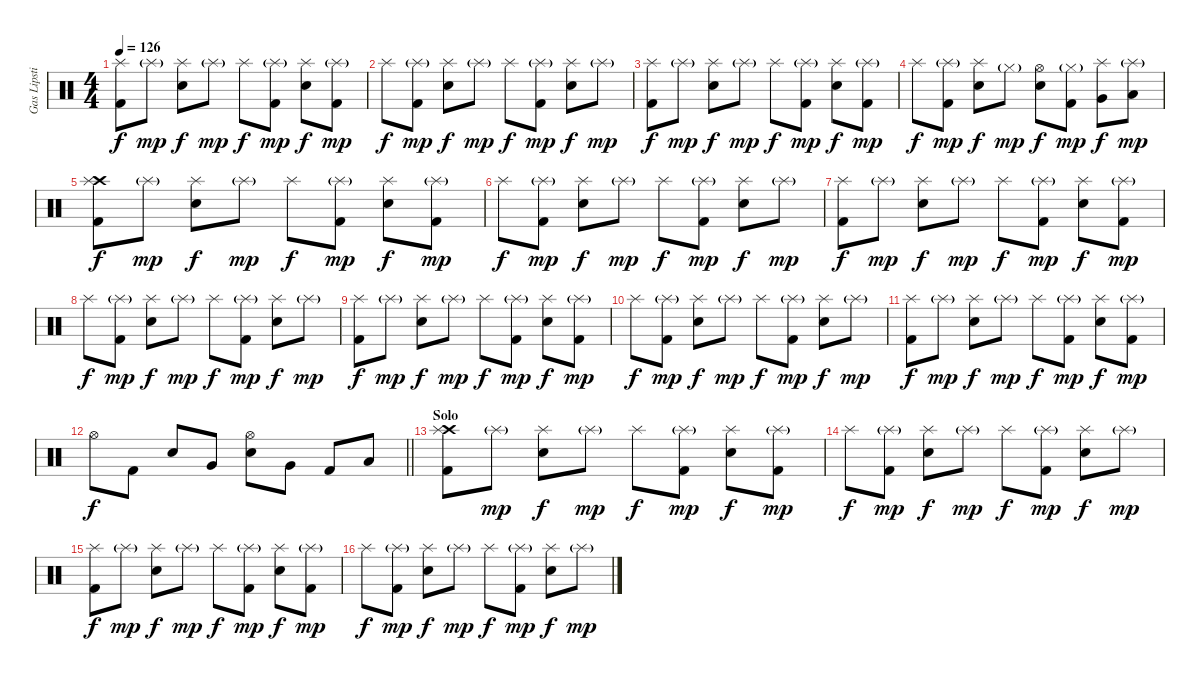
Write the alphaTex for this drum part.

\track ("Gas Lipstick (Drums)" "Gas Lipsti") {instrument percussion}
\staff {score}
\articulation defaults
\ts (4 4)
\tempo 126
\clef neutral
\ks c
("Splash (hit)" "Kick (hit) 2").8{dy f} "Splash (hit)"{g}.8{dy mp} ("Splash (hit)" "Snare (hit) 2").8{dy f} "Splash (hit)"{g}.8{dy mp} "Splash (hit)".8{dy f} ("Splash (hit)"{g} "Kick (hit) 2").8{dy mp} ("Splash (hit)" "Snare (hit) 2").8{dy f} ("Splash (hit)"{g} "Kick (hit) 2").8{dy mp} |
"Splash (hit)".8{dy f} ("Splash (hit)"{g} "Kick (hit) 2").8{dy mp} ("Splash (hit)" "Snare (hit) 2").8{dy f} "Splash (hit)"{g}.8{dy mp} "Splash (hit)".8{dy f} ("Splash (hit)"{g} "Kick (hit) 2").8{dy mp} ("Splash (hit)" "Snare (hit) 2").8{dy f} "Splash (hit)"{g}.8{dy mp} |
("Splash (hit)" "Kick (hit) 2").8{dy f} "Splash (hit)"{g}.8{dy mp} ("Splash (hit)" "Snare (hit) 2").8{dy f} "Splash (hit)"{g}.8{dy mp} "Splash (hit)".8{dy f} ("Splash (hit)"{g} "Kick (hit) 2").8{dy mp} ("Splash (hit)" "Snare (hit) 2").8{dy f} ("Splash (hit)"{g} "Kick (hit) 2").8{dy mp} |
"Splash (hit)".8{dy f} ("Splash (hit)"{g} "Kick (hit) 2").8{dy mp} ("Splash (hit)" "Snare (hit) 2").8{dy f} "Hi-Hat (closed)"{g}.8{dy mp} ("Hi-Hat (open)" "Snare (hit) 2").8{dy f} ("Hi-Hat (closed)"{g} "Kick (hit) 2").8{dy mp} ("Splash (hit)" "Very Low Tom (hit)").8{dy f} ("Splash (hit)"{g} "Low Floor Tom (hit)").8{dy mp} |
("Crash high (hit)" "Splash (hit)" "Kick (hit) 2").8{dy f} "Splash (hit)"{g}.8{dy mp} ("Splash (hit)" "Snare (hit) 2").8{dy f} "Splash (hit)"{g}.8{dy mp} "Splash (hit)".8{dy f} ("Splash (hit)"{g} "Kick (hit) 2").8{dy mp} ("Splash (hit)" "Snare (hit) 2").8{dy f} ("Splash (hit)"{g} "Kick (hit) 2").8{dy mp} |
"Splash (hit)".8{dy f} ("Splash (hit)"{g} "Kick (hit) 2").8{dy mp} ("Splash (hit)" "Snare (hit) 2").8{dy f} "Splash (hit)"{g}.8{dy mp} "Splash (hit)".8{dy f} ("Splash (hit)"{g} "Kick (hit) 2").8{dy mp} ("Splash (hit)" "Snare (hit) 2").8{dy f} "Splash (hit)"{g}.8{dy mp} |
("Splash (hit)" "Kick (hit) 2").8{dy f} "Splash (hit)"{g}.8{dy mp} ("Splash (hit)" "Snare (hit) 2").8{dy f} "Splash (hit)"{g}.8{dy mp} "Splash (hit)".8{dy f} ("Splash (hit)"{g} "Kick (hit) 2").8{dy mp} ("Splash (hit)" "Snare (hit) 2").8{dy f} ("Splash (hit)"{g} "Kick (hit) 2").8{dy mp} |
"Splash (hit)".8{dy f} ("Splash (hit)"{g} "Kick (hit) 2").8{dy mp} ("Splash (hit)" "Snare (hit) 2").8{dy f} "Splash (hit)"{g}.8{dy mp} "Splash (hit)".8{dy f} ("Splash (hit)"{g} "Kick (hit) 2").8{dy mp} ("Splash (hit)" "Snare (hit) 2").8{dy f} "Splash (hit)"{g}.8{dy mp} |
("Splash (hit)" "Kick (hit) 2").8{dy f} "Splash (hit)"{g}.8{dy mp} ("Splash (hit)" "Snare (hit) 2").8{dy f} "Splash (hit)"{g}.8{dy mp} "Splash (hit)".8{dy f} ("Splash (hit)"{g} "Kick (hit) 2").8{dy mp} ("Splash (hit)" "Snare (hit) 2").8{dy f} ("Splash (hit)"{g} "Kick (hit) 2").8{dy mp} |
"Splash (hit)".8{dy f} ("Splash (hit)"{g} "Kick (hit) 2").8{dy mp} ("Splash (hit)" "Snare (hit) 2").8{dy f} "Splash (hit)"{g}.8{dy mp} "Splash (hit)".8{dy f} ("Splash (hit)"{g} "Kick (hit) 2").8{dy mp} ("Splash (hit)" "Snare (hit) 2").8{dy f} "Splash (hit)"{g}.8{dy mp} |
("Splash (hit)" "Kick (hit) 2").8{dy f} "Splash (hit)"{g}.8{dy mp} ("Splash (hit)" "Snare (hit) 2").8{dy f} "Splash (hit)"{g}.8{dy mp} "Splash (hit)".8{dy f} ("Splash (hit)"{g} "Kick (hit) 2").8{dy mp} ("Splash (hit)" "Snare (hit) 2").8{dy f} ("Splash (hit)"{g} "Kick (hit) 2").8{dy mp} |
\barLineRight lightlight "Hi-Hat (open)".8{dy f} "Kick (hit) 2".8 "Snare (hit) 2".8 "Very Low Tom (hit)".8
("Hi-Hat (open)" "Snare (hit) 2").8 "Very Low Tom (hit)".8 "Kick (hit) 2".8 "Low Floor Tom (hit)".8 |
\section ("" "Solo")
("Crash high (hit)" "Splash (hit)" "Kick (hit) 2").8 "Splash (hit)"{g}.8{dy mp} ("Splash (hit)" "Snare (hit) 2").8{dy f} "Splash (hit)"{g}.8{dy mp} "Splash (hit)".8{dy f} ("Splash (hit)"{g} "Kick (hit) 2").8{dy mp} ("Splash (hit)" "Snare (hit) 2").8{dy f} ("Splash (hit)"{g} "Kick (hit) 2").8{dy mp} |
"Splash (hit)".8{dy f} ("Splash (hit)"{g} "Kick (hit) 2").8{dy mp} ("Splash (hit)" "Snare (hit) 2").8{dy f} "Splash (hit)"{g}.8{dy mp} "Splash (hit)".8{dy f} ("Splash (hit)"{g} "Kick (hit) 2").8{dy mp} ("Splash (hit)" "Snare (hit) 2").8{dy f} "Splash (hit)"{g}.8{dy mp} |
("Splash (hit)" "Kick (hit) 2").8{dy f} "Splash (hit)"{g}.8{dy mp} ("Splash (hit)" "Snare (hit) 2").8{dy f} "Splash (hit)"{g}.8{dy mp} "Splash (hit)".8{dy f} ("Splash (hit)"{g} "Kick (hit) 2").8{dy mp} ("Splash (hit)" "Snare (hit) 2").8{dy f} ("Splash (hit)"{g} "Kick (hit) 2").8{dy mp} |
"Splash (hit)".8{dy f} ("Splash (hit)"{g} "Kick (hit) 2").8{dy mp} ("Splash (hit)" "Snare (hit) 2").8{dy f} "Splash (hit)"{g}.8{dy mp} "Splash (hit)".8{dy f} ("Splash (hit)"{g} "Kick (hit) 2").8{dy mp} ("Splash (hit)" "Snare (hit) 2").8{dy f} "Splash (hit)"{g}.8{dy mp}
